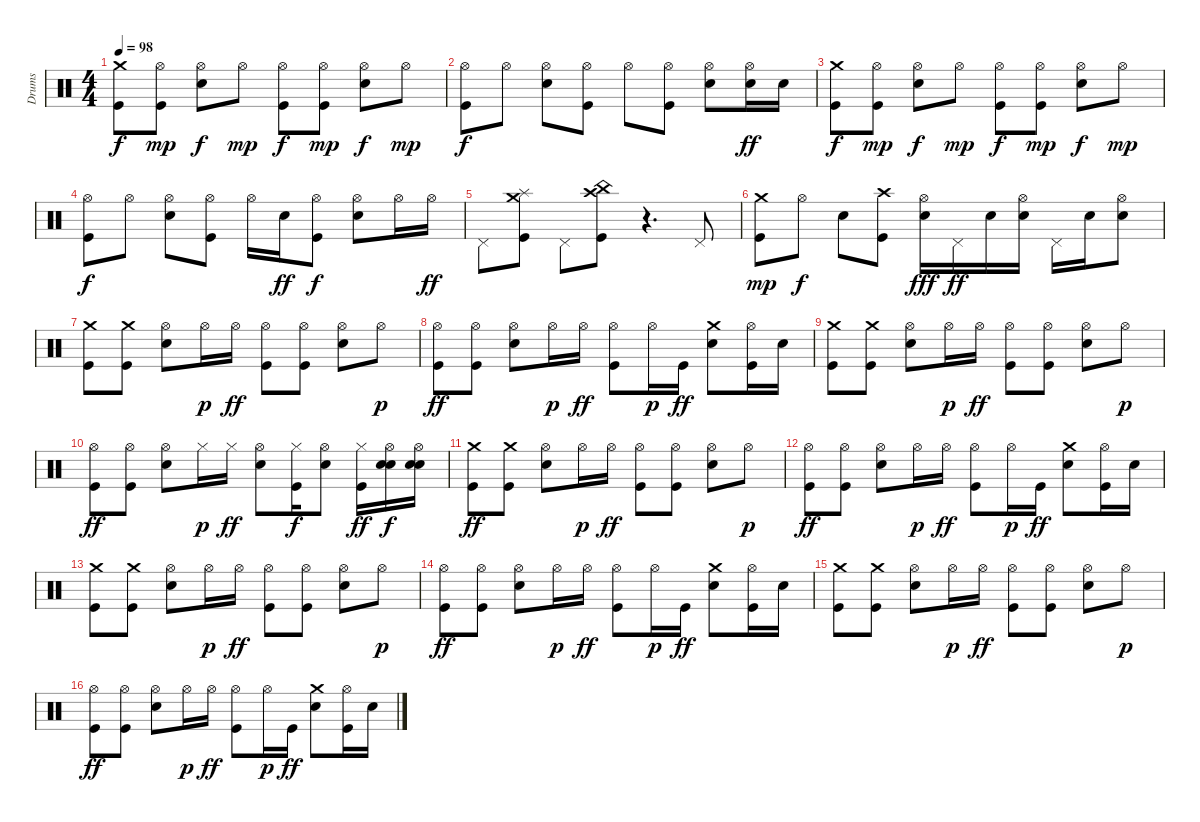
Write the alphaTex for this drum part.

\track ("Drums" "Drums") {instrument percussion}
\staff {score}
\articulation defaults
\ts (4 4)
\tempo 98
\clef neutral
\ks c
("Crash medium (hit)" "Kick (hit)").8{dy f} ("Hi-Hat (open)" "Kick (hit)").8{dy mp} ("Hi-Hat (open)" "Snare (hit) 2").8{dy f} "Hi-Hat (open)".8{dy mp} ("Hi-Hat (open)" "Kick (hit)").8{dy f} ("Hi-Hat (open)" "Kick (hit)").8{dy mp} ("Hi-Hat (open)" "Snare (hit) 2").8{dy f} "Hi-Hat (open)".8{dy mp} |
("Hi-Hat (open)" "Kick (hit)").8{dy f} "Hi-Hat (open)".8 ("Hi-Hat (open)" "Snare (hit) 2").8 ("Hi-Hat (open)" "Kick (hit)").8 "Hi-Hat (open)".8 ("Hi-Hat (open)" "Kick (hit)").8 ("Hi-Hat (open)" "Snare (hit) 2").8 ("Hi-Hat (open)" "Snare (hit) 2").16{dy ff} "Snare (hit) 2".16 |
("Crash medium (hit)" "Kick (hit)").8{dy f} ("Hi-Hat (open)" "Kick (hit)").8{dy mp} ("Hi-Hat (open)" "Snare (hit) 2").8{dy f} "Hi-Hat (open)".8{dy mp} ("Hi-Hat (open)" "Kick (hit)").8{dy f} ("Hi-Hat (open)" "Kick (hit)").8{dy mp} ("Hi-Hat (open)" "Snare (hit) 2").8{dy f} "Hi-Hat (open)".8{dy mp} |
("Hi-Hat (open)" "Kick (hit)").8{dy f} "Hi-Hat (open)".8 ("Hi-Hat (open)" "Snare (hit) 2").8 ("Hi-Hat (open)" "Kick (hit)").8 "Hi-Hat (open)".16 "Snare (hit) 2".16{dy ff} ("Hi-Hat (open)" "Kick (hit)").8{dy f} ("Hi-Hat (open)" "Snare (hit) 2").8 "Hi-Hat (open)".16 "Hi-Hat (open)".16{dy ff} |
"Pedal Hi-Hat (hit)".8 ("Crash medium (hit)" "Splash (hit)" "Kick (hit)").8 "Pedal Hi-Hat (hit)".8 ("Crash high (hit)" "China (hit)" "Kick (hit)").8 r.4{d} "Pedal Hi-Hat (hit)".8 |
("Crash medium (hit)" "Kick (hit)").8{dy mp} "Hi-Hat (open)".8{dy f} "Snare (hit) 2".8 ("Crash high (hit)" "Kick (hit)").8 ("Hi-Hat (open)" "Snare (hit) 2").16{dy fff} "Pedal Hi-Hat (hit)".16{dy ff} "Snare (hit) 2".16 ("Hi-Hat (open)" "Snare (hit) 2").16 "Pedal Hi-Hat (hit)".16 "Snare (hit) 2".16 ("Hi-Hat (open)" "Snare (hit) 2").8 |
("Crash medium (hit)" "Kick (hit)").8 ("Crash medium (hit)" "Kick (hit)").8 ("Hi-Hat (open)" "Snare (hit) 2").8 "Hi-Hat (open)".16{dy p} "Hi-Hat (open)".16{dy ff} ("Hi-Hat (open)" "Kick (hit)").8 ("Hi-Hat (open)" "Kick (hit)").8 ("Hi-Hat (open)" "Snare (hit) 2").8 "Hi-Hat (open)".8{dy p} |
("Hi-Hat (open)" "Kick (hit)").8{dy ff} ("Hi-Hat (open)" "Kick (hit)").8 ("Hi-Hat (open)" "Snare (hit) 2").8 "Hi-Hat (open)".16{dy p} "Hi-Hat (open)".16{dy ff} ("Hi-Hat (open)" "Kick (hit)").8 "Hi-Hat (open)".16{dy p} "Kick (hit)".16{dy ff} ("Crash medium (hit)" "Snare (hit) 2").8 ("Hi-Hat (open)" "Kick (hit)").16 "Snare (hit) 2".16 |
("Crash medium (hit)" "Kick (hit)").8 ("Crash medium (hit)" "Kick (hit)").8 ("Hi-Hat (open)" "Snare (hit) 2").8 "Hi-Hat (open)".16{dy p} "Hi-Hat (open)".16{dy ff} ("Hi-Hat (open)" "Kick (hit)").8 ("Hi-Hat (open)" "Kick (hit)").8 ("Hi-Hat (open)" "Snare (hit) 2").8 "Hi-Hat (open)".8{dy p} |
("Hi-Hat (open)" "Kick (hit)").8{dy ff} ("Hi-Hat (open)" "Kick (hit)").8 ("Hi-Hat (open)" "Snare (hit) 2").8 "Hi-Hat (closed)".16{dy p} "Hi-Hat (closed)".16{dy ff} ("Hi-Hat (open)" "Snare (hit) 2").8 ("Hi-Hat (closed)" "Kick (hit)").16{dy f} ("Hi-Hat (open)" "Snare (hit) 2").8 ("Hi-Hat (closed)" "Kick (hit)").16{dy ff} ("Hi-Hat (open)" "Snare (hit) 2" "Snare (hit) 2").16{dy f} ("Hi-Hat (open)" "Snare (hit) 2" "Snare (hit) 2").16 |
("Crash medium (hit)" "Kick (hit)").8{dy ff} ("Crash medium (hit)" "Kick (hit)").8 ("Hi-Hat (open)" "Snare (hit) 2").8 "Hi-Hat (open)".16{dy p} "Hi-Hat (open)".16{dy ff} ("Hi-Hat (open)" "Kick (hit)").8 ("Hi-Hat (open)" "Kick (hit)").8 ("Hi-Hat (open)" "Snare (hit) 2").8 "Hi-Hat (open)".8{dy p} |
("Hi-Hat (open)" "Kick (hit)").8{dy ff} ("Hi-Hat (open)" "Kick (hit)").8 ("Hi-Hat (open)" "Snare (hit) 2").8 "Hi-Hat (open)".16{dy p} "Hi-Hat (open)".16{dy ff} ("Hi-Hat (open)" "Kick (hit)").8 "Hi-Hat (open)".16{dy p} "Kick (hit)".16{dy ff} ("Crash medium (hit)" "Snare (hit) 2").8 ("Hi-Hat (open)" "Kick (hit)").16 "Snare (hit) 2".16 |
("Crash medium (hit)" "Kick (hit)").8 ("Crash medium (hit)" "Kick (hit)").8 ("Hi-Hat (open)" "Snare (hit) 2").8 "Hi-Hat (open)".16{dy p} "Hi-Hat (open)".16{dy ff} ("Hi-Hat (open)" "Kick (hit)").8 ("Hi-Hat (open)" "Kick (hit)").8 ("Hi-Hat (open)" "Snare (hit) 2").8 "Hi-Hat (open)".8{dy p} |
("Hi-Hat (open)" "Kick (hit)").8{dy ff} ("Hi-Hat (open)" "Kick (hit)").8 ("Hi-Hat (open)" "Snare (hit) 2").8 "Hi-Hat (open)".16{dy p} "Hi-Hat (open)".16{dy ff} ("Hi-Hat (open)" "Kick (hit)").8 "Hi-Hat (open)".16{dy p} "Kick (hit)".16{dy ff} ("Crash medium (hit)" "Snare (hit) 2").8 ("Hi-Hat (open)" "Kick (hit)").16 "Snare (hit) 2".16 |
("Crash medium (hit)" "Kick (hit)").8 ("Crash medium (hit)" "Kick (hit)").8 ("Hi-Hat (open)" "Snare (hit) 2").8 "Hi-Hat (open)".16{dy p} "Hi-Hat (open)".16{dy ff} ("Hi-Hat (open)" "Kick (hit)").8 ("Hi-Hat (open)" "Kick (hit)").8 ("Hi-Hat (open)" "Snare (hit) 2").8 "Hi-Hat (open)".8{dy p} |
("Hi-Hat (open)" "Kick (hit)").8{dy ff} ("Hi-Hat (open)" "Kick (hit)").8 ("Hi-Hat (open)" "Snare (hit) 2").8 "Hi-Hat (open)".16{dy p} "Hi-Hat (open)".16{dy ff} ("Hi-Hat (open)" "Kick (hit)").8 "Hi-Hat (open)".16{dy p} "Kick (hit)".16{dy ff} ("Crash medium (hit)" "Snare (hit) 2").8 ("Hi-Hat (open)" "Kick (hit)").16 "Snare (hit) 2".16
